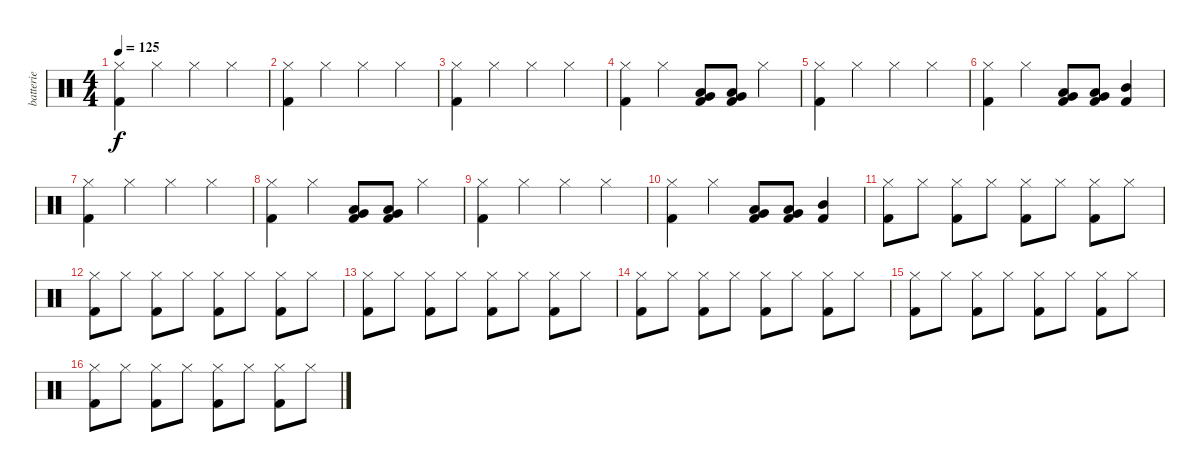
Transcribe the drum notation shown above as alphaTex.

\track ("batterie" "batterie") {instrument percussion}
\staff {score}
\articulation defaults
\ts (4 4)
\tempo 125
\clef neutral
\ks c
("Kick (hit) 2" "Hi-Hat (closed)").4{dy f} "Hi-Hat (closed)".4 "Hi-Hat (closed)".4 "Hi-Hat (closed)".4 |
("Kick (hit) 2" "Hi-Hat (closed)").4 "Hi-Hat (closed)".4 "Hi-Hat (closed)".4 "Hi-Hat (closed)".4 |
("Kick (hit) 2" "Hi-Hat (closed)").4 "Hi-Hat (closed)".4 "Hi-Hat (closed)".4 "Hi-Hat (closed)".4 |
("Kick (hit) 2" "Hi-Hat (closed)").4 "Hi-Hat (closed)".4 ("Very Low Tom (hit)" "Low Tom (hit)" "Kick (hit) 2").8 ("Very Low Tom (hit)" "Low Tom (hit)" "Kick (hit) 2").8 "Hi-Hat (closed)".4 |
("Kick (hit) 2" "Hi-Hat (closed)").4 "Hi-Hat (closed)".4 "Hi-Hat (closed)".4 "Hi-Hat (closed)".4 |
("Kick (hit) 2" "Hi-Hat (closed)").4 "Hi-Hat (closed)".4 ("Very Low Tom (hit)" "Low Tom (hit)" "Kick (hit) 2").8 ("Very Low Tom (hit)" "Low Tom (hit)" "Kick (hit) 2").8 ("Mid Tom (hit)" "Kick (hit) 2").4 |
("Kick (hit) 2" "Hi-Hat (closed)").4 "Hi-Hat (closed)".4 "Hi-Hat (closed)".4 "Hi-Hat (closed)".4 |
("Kick (hit) 2" "Hi-Hat (closed)").4 "Hi-Hat (closed)".4 ("Very Low Tom (hit)" "Low Tom (hit)" "Kick (hit) 2").8 ("Very Low Tom (hit)" "Low Tom (hit)" "Kick (hit) 2").8 "Hi-Hat (closed)".4 |
("Kick (hit) 2" "Hi-Hat (closed)").4 "Hi-Hat (closed)".4 "Hi-Hat (closed)".4 "Hi-Hat (closed)".4 |
("Kick (hit) 2" "Hi-Hat (closed)").4 "Hi-Hat (closed)".4 ("Very Low Tom (hit)" "Low Tom (hit)" "Kick (hit) 2").8 ("Very Low Tom (hit)" "Low Tom (hit)" "Kick (hit) 2").8 ("Mid Tom (hit)" "Kick (hit) 2").4 |
("Kick (hit) 2" "Hi-Hat (closed)").8 "Hi-Hat (closed)".8 ("Kick (hit) 2" "Hi-Hat (closed)").8 "Hi-Hat (closed)".8 ("Kick (hit) 2" "Hi-Hat (closed)").8 "Hi-Hat (closed)".8 ("Kick (hit) 2" "Hi-Hat (closed)").8 "Hi-Hat (closed)".8 |
("Kick (hit) 2" "Hi-Hat (closed)").8 "Hi-Hat (closed)".8 ("Kick (hit) 2" "Hi-Hat (closed)").8 "Hi-Hat (closed)".8 ("Kick (hit) 2" "Hi-Hat (closed)").8 "Hi-Hat (closed)".8 ("Kick (hit) 2" "Hi-Hat (closed)").8 "Hi-Hat (closed)".8 |
("Kick (hit) 2" "Hi-Hat (closed)").8 "Hi-Hat (closed)".8 ("Kick (hit) 2" "Hi-Hat (closed)").8 "Hi-Hat (closed)".8 ("Kick (hit) 2" "Hi-Hat (closed)").8 "Hi-Hat (closed)".8 ("Kick (hit) 2" "Hi-Hat (closed)").8 "Hi-Hat (closed)".8 |
("Kick (hit) 2" "Hi-Hat (closed)").8 "Hi-Hat (closed)".8 ("Kick (hit) 2" "Hi-Hat (closed)").8 "Hi-Hat (closed)".8 ("Kick (hit) 2" "Hi-Hat (closed)").8 "Hi-Hat (closed)".8 ("Kick (hit) 2" "Hi-Hat (closed)").8 "Hi-Hat (closed)".8 |
("Kick (hit) 2" "Hi-Hat (closed)").8 "Hi-Hat (closed)".8 ("Kick (hit) 2" "Hi-Hat (closed)").8 "Hi-Hat (closed)".8 ("Kick (hit) 2" "Hi-Hat (closed)").8 "Hi-Hat (closed)".8 ("Kick (hit) 2" "Hi-Hat (closed)").8 "Hi-Hat (closed)".8 |
("Kick (hit) 2" "Hi-Hat (closed)").8 "Hi-Hat (closed)".8 ("Kick (hit) 2" "Hi-Hat (closed)").8 "Hi-Hat (closed)".8 ("Kick (hit) 2" "Hi-Hat (closed)").8 "Hi-Hat (closed)".8 ("Kick (hit) 2" "Hi-Hat (closed)").8 "Hi-Hat (closed)".8
